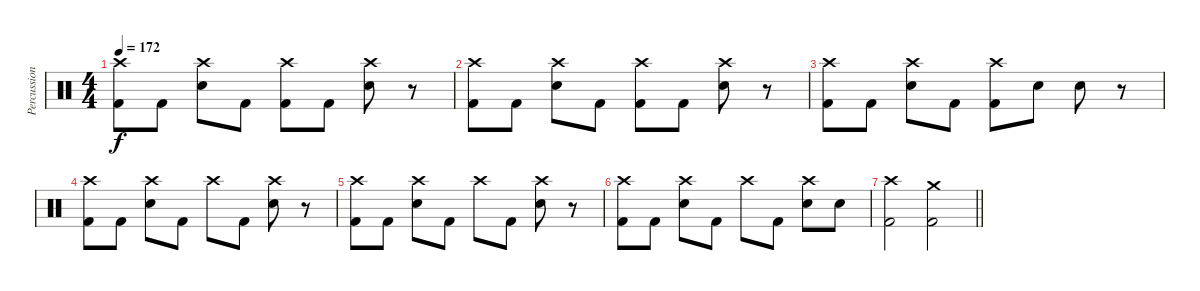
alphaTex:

\track ("Percussion" "Percussion") {instrument percussion}
\staff {score}
\articulation defaults
\ts (4 4)
\tempo 172
\clef neutral
\ks c
("Crash high (hit)" "Kick (hit) 2").8{dy f} "Kick (hit) 2".8 ("Crash high (hit)" "Snare (hit) 2").8 "Kick (hit) 2".8 ("Crash high (hit)" "Kick (hit) 2").8 "Kick (hit) 2".8 ("Crash high (hit)" "Snare (hit) 2").8 r.8 |
("Crash high (hit)" "Kick (hit) 2").8 "Kick (hit) 2".8 ("Crash high (hit)" "Snare (hit) 2").8 "Kick (hit) 2".8 ("Crash high (hit)" "Kick (hit) 2").8 "Kick (hit) 2".8 ("Crash high (hit)" "Snare (hit) 2").8 r.8 |
("Crash high (hit)" "Kick (hit) 2").8 "Kick (hit) 2".8 ("Crash high (hit)" "Snare (hit) 2").8 "Kick (hit) 2".8 ("Crash high (hit)" "Kick (hit) 2").8 "Snare (hit) 2".8 "Snare (hit) 2".8 r.8 |
("Crash high (hit)" "Kick (hit) 2").8 "Kick (hit) 2".8 ("Crash high (hit)" "Snare (hit) 2").8 "Kick (hit) 2".8 "Crash high (hit)".8 "Kick (hit) 2".8 ("Crash high (hit)" "Snare (hit) 2").8 r.8 |
("Crash high (hit)" "Kick (hit) 2").8 "Kick (hit) 2".8 ("Crash high (hit)" "Snare (hit) 2").8 "Kick (hit) 2".8 "Crash high (hit)".8 "Kick (hit) 2".8 ("Crash high (hit)" "Snare (hit) 2").8 r.8 |
("Crash high (hit)" "Kick (hit) 2").8 "Kick (hit) 2".8 ("Crash high (hit)" "Snare (hit) 2").8 "Kick (hit) 2".8 "Crash high (hit)".8 "Kick (hit) 2".8 ("Crash high (hit)" "Snare (hit) 2").8 "Snare (hit) 2".8 |
\barLineRight lightlight
("Crash high (hit)" "Kick (hit) 2").2 ("Crash medium (hit)" "Kick (hit) 2").2
